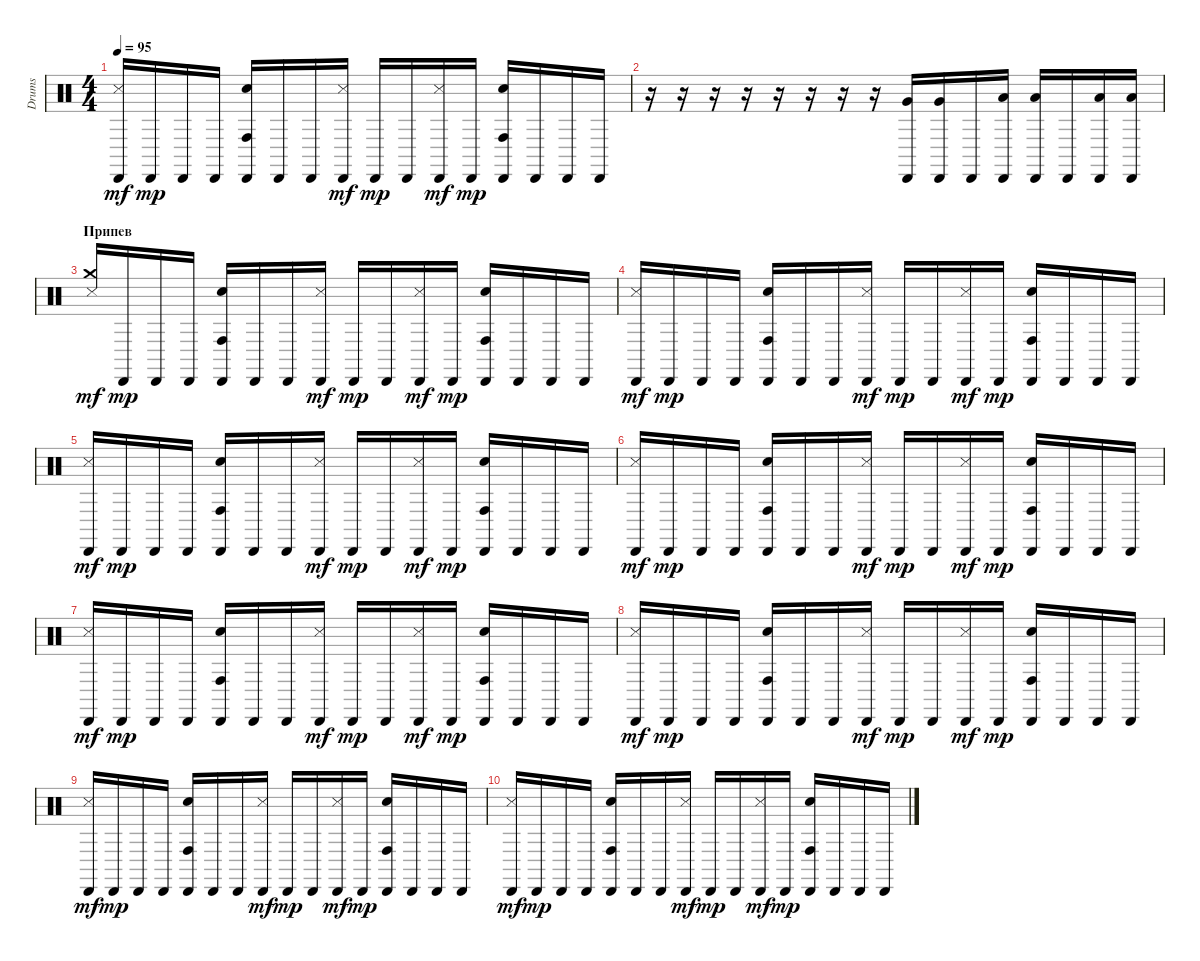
\track ("Drums" "Drums") {instrument percussion}
\staff {score}
\articulation defaults
\ts (4 4)
\tempo 95
\clef neutral
\ks c
("Cabasa (hit)" "Metronome (hit)").16{dy mf} "Cabasa (hit)".16{dy mp} "Cabasa (hit)".16 "Cabasa (hit)".16 ("Cabasa (hit)" "Electric Snare (hit)" "Conga high (hit)").16 "Cabasa (hit)".16 "Cabasa (hit)".16 ("Cabasa (hit)" "Metronome (hit)").16{dy mf} "Cabasa (hit)".16{dy mp} "Cabasa (hit)".16 ("Cabasa (hit)" "Metronome (hit)").16{dy mf} "Cabasa (hit)".16{dy mp} ("Cabasa (hit)" "Electric Snare (hit)" "Conga high (hit)").16 "Cabasa (hit)".16 "Cabasa (hit)".16 "Cabasa (hit)".16 |
r.16 r.16 r.16 r.16 r.16 r.16 r.16 r.16 ("Cabasa (hit)" "Very Low Tom (hit)").16 ("Cabasa (hit)" "Very Low Tom (hit)").16 "Cabasa (hit)".16 ("Cabasa (hit)" "Low Floor Tom (hit)").16 ("Cabasa (hit)" "Low Floor Tom (hit)").16 "Cabasa (hit)".16 ("Cabasa (hit)" "Low Tom (hit)").16 ("Cabasa (hit)" "Low Tom (hit)").16 |
\section ("" "Припев")
("Crash medium (hit)" "Metronome (hit)").16{dy mf} "Cabasa (hit)".16{dy mp} "Cabasa (hit)".16 "Cabasa (hit)".16 ("Cabasa (hit)" "Electric Snare (hit)" "Conga high (hit)").16 "Cabasa (hit)".16 "Cabasa (hit)".16 ("Cabasa (hit)" "Metronome (hit)").16{dy mf} "Cabasa (hit)".16{dy mp} "Cabasa (hit)".16 ("Cabasa (hit)" "Metronome (hit)").16{dy mf} "Cabasa (hit)".16{dy mp} ("Cabasa (hit)" "Electric Snare (hit)" "Conga high (hit)").16 "Cabasa (hit)".16 "Cabasa (hit)".16 "Cabasa (hit)".16 |
("Cabasa (hit)" "Metronome (hit)").16{dy mf} "Cabasa (hit)".16{dy mp} "Cabasa (hit)".16 "Cabasa (hit)".16 ("Cabasa (hit)" "Electric Snare (hit)" "Conga high (hit)").16 "Cabasa (hit)".16 "Cabasa (hit)".16 ("Cabasa (hit)" "Metronome (hit)").16{dy mf} "Cabasa (hit)".16{dy mp} "Cabasa (hit)".16 ("Cabasa (hit)" "Metronome (hit)").16{dy mf} "Cabasa (hit)".16{dy mp} ("Cabasa (hit)" "Electric Snare (hit)" "Conga high (hit)").16 "Cabasa (hit)".16 "Cabasa (hit)".16 "Cabasa (hit)".16 |
("Cabasa (hit)" "Metronome (hit)").16{dy mf} "Cabasa (hit)".16{dy mp} "Cabasa (hit)".16 "Cabasa (hit)".16 ("Cabasa (hit)" "Electric Snare (hit)" "Conga high (hit)").16 "Cabasa (hit)".16 "Cabasa (hit)".16 ("Cabasa (hit)" "Metronome (hit)").16{dy mf} "Cabasa (hit)".16{dy mp} "Cabasa (hit)".16 ("Cabasa (hit)" "Metronome (hit)").16{dy mf} "Cabasa (hit)".16{dy mp} ("Cabasa (hit)" "Electric Snare (hit)" "Conga high (hit)").16 "Cabasa (hit)".16 "Cabasa (hit)".16 "Cabasa (hit)".16 |
("Cabasa (hit)" "Metronome (hit)").16{dy mf} "Cabasa (hit)".16{dy mp} "Cabasa (hit)".16 "Cabasa (hit)".16 ("Cabasa (hit)" "Electric Snare (hit)" "Conga high (hit)").16 "Cabasa (hit)".16 "Cabasa (hit)".16 ("Cabasa (hit)" "Metronome (hit)").16{dy mf} "Cabasa (hit)".16{dy mp} "Cabasa (hit)".16 ("Cabasa (hit)" "Metronome (hit)").16{dy mf} "Cabasa (hit)".16{dy mp} ("Cabasa (hit)" "Electric Snare (hit)" "Conga high (hit)").16 "Cabasa (hit)".16 "Cabasa (hit)".16 "Cabasa (hit)".16 |
("Cabasa (hit)" "Metronome (hit)").16{dy mf} "Cabasa (hit)".16{dy mp} "Cabasa (hit)".16 "Cabasa (hit)".16 ("Cabasa (hit)" "Electric Snare (hit)" "Conga high (hit)").16 "Cabasa (hit)".16 "Cabasa (hit)".16 ("Cabasa (hit)" "Metronome (hit)").16{dy mf} "Cabasa (hit)".16{dy mp} "Cabasa (hit)".16 ("Cabasa (hit)" "Metronome (hit)").16{dy mf} "Cabasa (hit)".16{dy mp} ("Cabasa (hit)" "Electric Snare (hit)" "Conga high (hit)").16 "Cabasa (hit)".16 "Cabasa (hit)".16 "Cabasa (hit)".16 |
("Cabasa (hit)" "Metronome (hit)").16{dy mf} "Cabasa (hit)".16{dy mp} "Cabasa (hit)".16 "Cabasa (hit)".16 ("Cabasa (hit)" "Electric Snare (hit)" "Conga high (hit)").16 "Cabasa (hit)".16 "Cabasa (hit)".16 ("Cabasa (hit)" "Metronome (hit)").16{dy mf} "Cabasa (hit)".16{dy mp} "Cabasa (hit)".16 ("Cabasa (hit)" "Metronome (hit)").16{dy mf} "Cabasa (hit)".16{dy mp} ("Cabasa (hit)" "Electric Snare (hit)" "Conga high (hit)").16 "Cabasa (hit)".16 "Cabasa (hit)".16 "Cabasa (hit)".16 |
("Cabasa (hit)" "Metronome (hit)").16{dy mf} "Cabasa (hit)".16{dy mp} "Cabasa (hit)".16 "Cabasa (hit)".16 ("Cabasa (hit)" "Electric Snare (hit)" "Conga high (hit)").16 "Cabasa (hit)".16 "Cabasa (hit)".16 ("Cabasa (hit)" "Metronome (hit)").16{dy mf} "Cabasa (hit)".16{dy mp} "Cabasa (hit)".16 ("Cabasa (hit)" "Metronome (hit)").16{dy mf} "Cabasa (hit)".16{dy mp} ("Cabasa (hit)" "Electric Snare (hit)" "Conga high (hit)").16 "Cabasa (hit)".16 "Cabasa (hit)".16 "Cabasa (hit)".16 |
("Cabasa (hit)" "Metronome (hit)").16{dy mf} "Cabasa (hit)".16{dy mp} "Cabasa (hit)".16 "Cabasa (hit)".16 ("Cabasa (hit)" "Electric Snare (hit)" "Conga high (hit)").16 "Cabasa (hit)".16 "Cabasa (hit)".16 ("Cabasa (hit)" "Metronome (hit)").16{dy mf} "Cabasa (hit)".16{dy mp} "Cabasa (hit)".16 ("Cabasa (hit)" "Metronome (hit)").16{dy mf} "Cabasa (hit)".16{dy mp} ("Cabasa (hit)" "Electric Snare (hit)" "Conga high (hit)").16 "Cabasa (hit)".16 "Cabasa (hit)".16 "Cabasa (hit)".16
